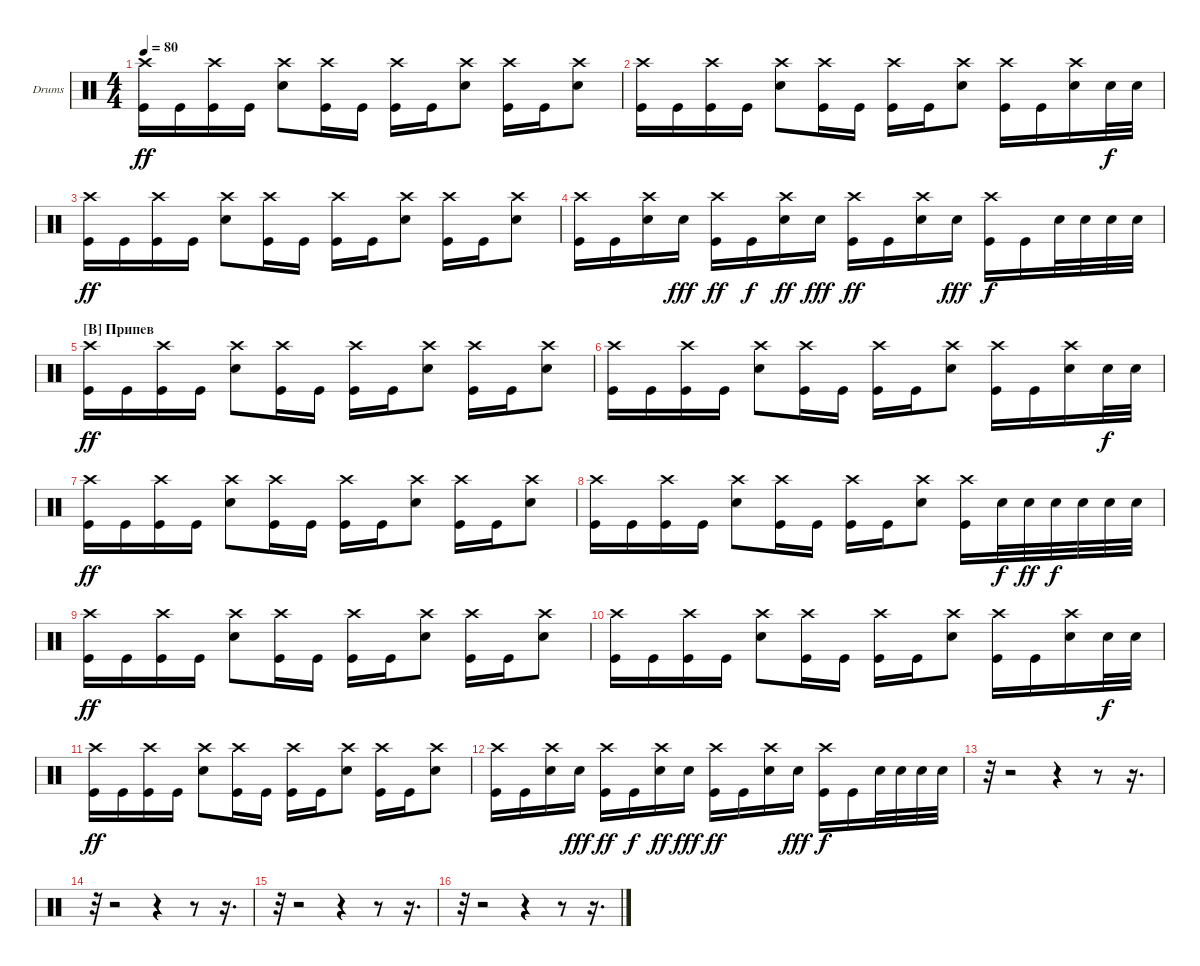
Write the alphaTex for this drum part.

\defaultSystemsLayout 4
\bracketExtendMode groupsimilarinstruments
\firstSystemTrackNameOrientation horizontal
\otherSystemsTrackNameOrientation horizontal
\track ("Drumkit" "Drums") {mute instrument percussion}
\staff {score}
\articulation defaults
\ts (4 4)
\tempo 80
\clef neutral
\ks c
("Crash high (hit)" "Kick (hit)").16{dy ff} "Kick (hit)".16 ("Crash high (hit)" "Kick (hit)").16 "Kick (hit)".16 ("Crash high (hit)" "Snare (hit) 2").8 ("Crash high (hit)" "Kick (hit)").16 "Kick (hit)".16 ("Crash high (hit)" "Kick (hit)").16 "Kick (hit)".16 ("Crash high (hit)" "Snare (hit) 2").8 ("Crash high (hit)" "Kick (hit)").16 "Kick (hit)".16 ("Crash high (hit)" "Snare (hit) 2").8 |
("Crash high (hit)" "Kick (hit)").16 "Kick (hit)".16 ("Crash high (hit)" "Kick (hit)").16 "Kick (hit)".16 ("Crash high (hit)" "Snare (hit) 2").8 ("Crash high (hit)" "Kick (hit)").16 "Kick (hit)".16 ("Crash high (hit)" "Kick (hit)").16 "Kick (hit)".16 ("Crash high (hit)" "Snare (hit) 2").8 ("Crash high (hit)" "Kick (hit)").16 "Kick (hit)".16 ("Crash high (hit)" "Snare (hit) 2").16 "Snare (hit) 2".32{dy f} "Snare (hit) 2".32 |
("Crash high (hit)" "Kick (hit)").16{dy ff} "Kick (hit)".16 ("Crash high (hit)" "Kick (hit)").16 "Kick (hit)".16 ("Crash high (hit)" "Snare (hit) 2").8 ("Crash high (hit)" "Kick (hit)").16 "Kick (hit)".16 ("Crash high (hit)" "Kick (hit)").16 "Kick (hit)".16 ("Crash high (hit)" "Snare (hit) 2").8 ("Crash high (hit)" "Kick (hit)").16 "Kick (hit)".16 ("Crash high (hit)" "Snare (hit) 2").8 |
("Crash high (hit)" "Kick (hit)").16 "Kick (hit)".16 ("Crash high (hit)" "Snare (hit) 2").16 "Snare (hit) 2".16{dy fff} ("Crash high (hit)" "Kick (hit)").16{dy ff} "Kick (hit)".16{dy f} ("Crash high (hit)" "Snare (hit) 2").16{dy ff} "Snare (hit) 2".16{dy fff} ("Crash high (hit)" "Kick (hit)").16{dy ff} "Kick (hit)".16 ("Crash high (hit)" "Snare (hit) 2").16 "Snare (hit) 2".16{dy fff} ("Crash high (hit)" "Kick (hit)").16{dy f} "Kick (hit)".16 "Snare (hit) 2".32 "Snare (hit) 2".32 "Snare (hit) 2".32 "Snare (hit) 2".32 |
\section ("B" "Припев")
("Crash high (hit)" "Kick (hit)").16{dy ff} "Kick (hit)".16 ("Crash high (hit)" "Kick (hit)").16 "Kick (hit)".16 ("Crash high (hit)" "Snare (hit) 2").8 ("Crash high (hit)" "Kick (hit)").16 "Kick (hit)".16 ("Crash high (hit)" "Kick (hit)").16 "Kick (hit)".16 ("Crash high (hit)" "Snare (hit) 2").8 ("Crash high (hit)" "Kick (hit)").16 "Kick (hit)".16 ("Crash high (hit)" "Snare (hit) 2").8 |
("Crash high (hit)" "Kick (hit)").16 "Kick (hit)".16 ("Crash high (hit)" "Kick (hit)").16 "Kick (hit)".16 ("Crash high (hit)" "Snare (hit) 2").8 ("Crash high (hit)" "Kick (hit)").16 "Kick (hit)".16 ("Crash high (hit)" "Kick (hit)").16 "Kick (hit)".16 ("Crash high (hit)" "Snare (hit) 2").8 ("Crash high (hit)" "Kick (hit)").16 "Kick (hit)".16 ("Crash high (hit)" "Snare (hit) 2").16 "Snare (hit) 2".32{dy f} "Snare (hit) 2".32 |
("Crash high (hit)" "Kick (hit)").16{dy ff} "Kick (hit)".16 ("Crash high (hit)" "Kick (hit)").16 "Kick (hit)".16 ("Crash high (hit)" "Snare (hit) 2").8 ("Crash high (hit)" "Kick (hit)").16 "Kick (hit)".16 ("Crash high (hit)" "Kick (hit)").16 "Kick (hit)".16 ("Crash high (hit)" "Snare (hit) 2").8 ("Crash high (hit)" "Kick (hit)").16 "Kick (hit)".16 ("Crash high (hit)" "Snare (hit) 2").8 |
("Crash high (hit)" "Kick (hit)").16 "Kick (hit)".16 ("Crash high (hit)" "Kick (hit)").16 "Kick (hit)".16 ("Crash high (hit)" "Snare (hit) 2").8 ("Crash high (hit)" "Kick (hit)").16 "Kick (hit)".16 ("Crash high (hit)" "Kick (hit)").16 "Kick (hit)".16 ("Crash high (hit)" "Snare (hit) 2").8 ("Crash high (hit)" "Kick (hit)").16 "Snare (hit) 2".32{dy f} "Snare (hit) 2".32{dy ff} "Snare (hit) 2".32{dy f} "Snare (hit) 2".32 "Snare (hit) 2".32 "Snare (hit) 2".32 |
("Crash high (hit)" "Kick (hit)").16{dy ff} "Kick (hit)".16 ("Crash high (hit)" "Kick (hit)").16 "Kick (hit)".16 ("Crash high (hit)" "Snare (hit) 2").8 ("Crash high (hit)" "Kick (hit)").16 "Kick (hit)".16 ("Crash high (hit)" "Kick (hit)").16 "Kick (hit)".16 ("Crash high (hit)" "Snare (hit) 2").8 ("Crash high (hit)" "Kick (hit)").16 "Kick (hit)".16 ("Crash high (hit)" "Snare (hit) 2").8 |
("Crash high (hit)" "Kick (hit)").16 "Kick (hit)".16 ("Crash high (hit)" "Kick (hit)").16 "Kick (hit)".16 ("Crash high (hit)" "Snare (hit) 2").8 ("Crash high (hit)" "Kick (hit)").16 "Kick (hit)".16 ("Crash high (hit)" "Kick (hit)").16 "Kick (hit)".16 ("Crash high (hit)" "Snare (hit) 2").8 ("Crash high (hit)" "Kick (hit)").16 "Kick (hit)".16 ("Crash high (hit)" "Snare (hit) 2").16 "Snare (hit) 2".32{dy f} "Snare (hit) 2".32 |
("Crash high (hit)" "Kick (hit)").16{dy ff} "Kick (hit)".16 ("Crash high (hit)" "Kick (hit)").16 "Kick (hit)".16 ("Crash high (hit)" "Snare (hit) 2").8 ("Crash high (hit)" "Kick (hit)").16 "Kick (hit)".16 ("Crash high (hit)" "Kick (hit)").16 "Kick (hit)".16 ("Crash high (hit)" "Snare (hit) 2").8 ("Crash high (hit)" "Kick (hit)").16 "Kick (hit)".16 ("Crash high (hit)" "Snare (hit) 2").8 |
("Crash high (hit)" "Kick (hit)").16 "Kick (hit)".16 ("Crash high (hit)" "Snare (hit) 2").16 "Snare (hit) 2".16{dy fff} ("Crash high (hit)" "Kick (hit)").16{dy ff} "Kick (hit)".16{dy f} ("Crash high (hit)" "Snare (hit) 2").16{dy ff} "Snare (hit) 2".16{dy fff} ("Crash high (hit)" "Kick (hit)").16{dy ff} "Kick (hit)".16 ("Crash high (hit)" "Snare (hit) 2").16 "Snare (hit) 2".16{dy fff} ("Crash high (hit)" "Kick (hit)").16{dy f} "Kick (hit)".16 "Snare (hit) 2".32 "Snare (hit) 2".32 "Snare (hit) 2".32 "Snare (hit) 2".32 |
r.32 r.2 r.4 r.8 r.16{d} |
r.32 r.2 r.4 r.8 r.16{d} |
r.32 r.2 r.4 r.8 r.16{d} |
r.32 r.2 r.4 r.8 r.16{d}
